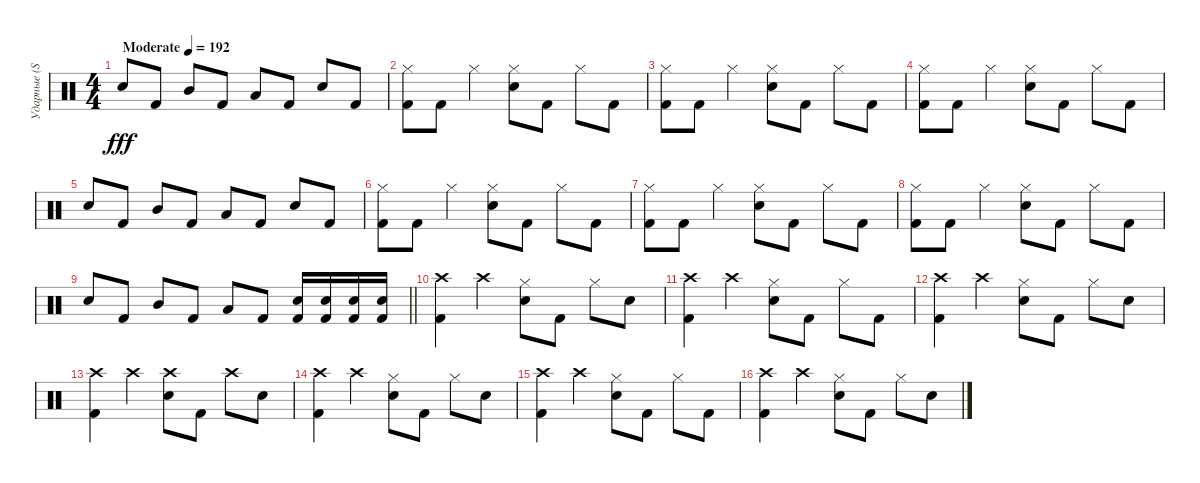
\track ("Ударные (Steve Jocz)" "Ударные (S") {instrument percussion}
\staff {score}
\articulation defaults
\ts (4 4)
\tempo (192 "Moderate")
\clef neutral
\ks c "Electric Snare (hit)".8{dy fff} "Kick (hit) 2".8 "Mid Tom (hit)".8 "Kick (hit) 2".8 "Low Tom (hit)".8 "Kick (hit) 2".8 "Electric Snare (hit)".8 "Kick (hit) 2".8
|
("Hi-Hat (closed)" "Kick (hit) 2").8 "Kick (hit) 2".8 "Hi-Hat (closed)".4 ("Hi-Hat (closed)" "Electric Snare (hit)").8 "Kick (hit) 2".8 "Hi-Hat (closed)".8 "Kick (hit) 2".8 |
("Hi-Hat (closed)" "Kick (hit) 2").8 "Kick (hit) 2".8 "Hi-Hat (closed)".4 ("Hi-Hat (closed)" "Electric Snare (hit)").8 "Kick (hit) 2".8 "Hi-Hat (closed)".8 "Kick (hit) 2".8 |
("Hi-Hat (closed)" "Kick (hit) 2").8 "Kick (hit) 2".8 "Hi-Hat (closed)".4 ("Hi-Hat (closed)" "Electric Snare (hit)").8 "Kick (hit) 2".8 "Hi-Hat (closed)".8 "Kick (hit) 2".8 |
"Electric Snare (hit)".8 "Kick (hit) 2".8 "Mid Tom (hit)".8 "Kick (hit) 2".8 "Low Tom (hit)".8 "Kick (hit) 2".8 "Electric Snare (hit)".8 "Kick (hit) 2".8 |
("Hi-Hat (closed)" "Kick (hit) 2").8 "Kick (hit) 2".8 "Hi-Hat (closed)".4 ("Hi-Hat (closed)" "Electric Snare (hit)").8 "Kick (hit) 2".8 "Hi-Hat (closed)".8 "Kick (hit) 2".8 |
("Hi-Hat (closed)" "Kick (hit) 2").8 "Kick (hit) 2".8 "Hi-Hat (closed)".4 ("Hi-Hat (closed)" "Electric Snare (hit)").8 "Kick (hit) 2".8 "Hi-Hat (closed)".8 "Kick (hit) 2".8 |
("Hi-Hat (closed)" "Kick (hit) 2").8 "Kick (hit) 2".8 "Hi-Hat (closed)".4 ("Hi-Hat (closed)" "Electric Snare (hit)").8 "Kick (hit) 2".8 "Hi-Hat (closed)".8 "Kick (hit) 2".8 |
\barLineRight lightlight "Electric Snare (hit)".8 "Kick (hit) 2".8 "Mid Tom (hit)".8 "Kick (hit) 2".8 "Low Tom (hit)".8 "Kick (hit) 2".8
("Electric Snare (hit)" "Kick (hit) 2").16 ("Electric Snare (hit)" "Kick (hit) 2").16 ("Electric Snare (hit)" "Kick (hit) 2").16 ("Electric Snare (hit)" "Kick (hit) 2").16 |
("Crash high (hit)" "Kick (hit) 2").4 "Crash high (hit)".4 ("Hi-Hat (closed)" "Electric Snare (hit)").8 "Kick (hit) 2".8 "Hi-Hat (closed)".8 "Electric Snare (hit)".8 |
("Crash high (hit)" "Kick (hit) 2").4 "Crash high (hit)".4 ("Hi-Hat (closed)" "Electric Snare (hit)").8 "Kick (hit) 2".8 "Hi-Hat (closed)".8 "Kick (hit) 2".8 |
("Crash high (hit)" "Kick (hit) 2").4 "Crash high (hit)".4 ("Hi-Hat (closed)" "Electric Snare (hit)").8 "Kick (hit) 2".8 "Hi-Hat (closed)".8 "Electric Snare (hit)".8 |
("Crash high (hit)" "Kick (hit) 2").4 "Crash high (hit)".4 ("Crash high (hit)" "Electric Snare (hit)").8 "Kick (hit) 2".8 "Crash high (hit)".8 "Electric Snare (hit)".8 |
("Crash high (hit)" "Kick (hit) 2").4 "Crash high (hit)".4 ("Hi-Hat (closed)" "Electric Snare (hit)").8 "Kick (hit) 2".8 "Hi-Hat (closed)".8 "Electric Snare (hit)".8 |
("Crash high (hit)" "Kick (hit) 2").4 "Crash high (hit)".4 ("Hi-Hat (closed)" "Electric Snare (hit)").8 "Kick (hit) 2".8 "Hi-Hat (closed)".8 "Kick (hit) 2".8 |
("Crash high (hit)" "Kick (hit) 2").4 "Crash high (hit)".4 ("Hi-Hat (closed)" "Electric Snare (hit)").8 "Kick (hit) 2".8 "Hi-Hat (closed)".8 "Electric Snare (hit)".8
